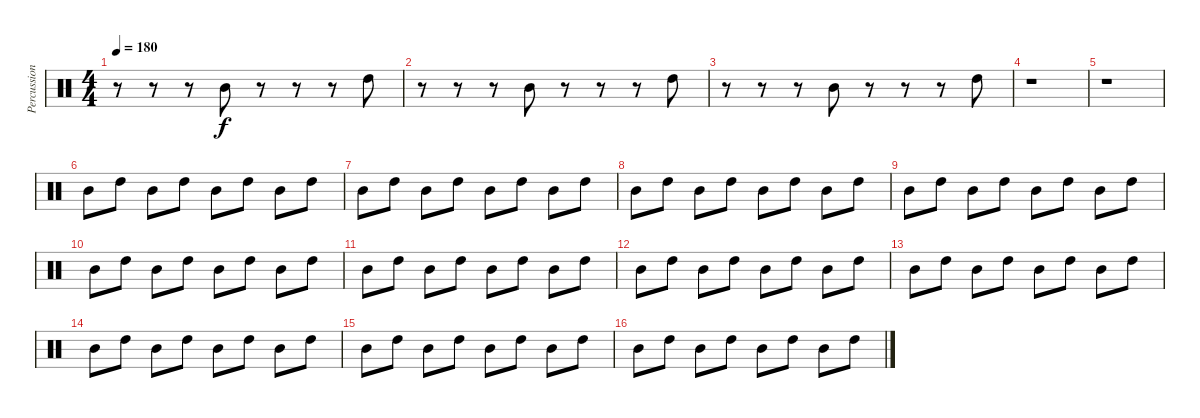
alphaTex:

\track ("Percussions" "Percussion") {instrument percussion}
\staff {score}
\articulation defaults
\ts (4 4)
\tempo 180
\clef neutral
\ks c
r.8{dy f} r.8 r.8 "Mid Tom (hit)".8 r.8 r.8 r.8 "High Tom (hit)".8 |
r.8 r.8 r.8 "Mid Tom (hit)".8 r.8 r.8 r.8 "High Tom (hit)".8 |
r.8 r.8 r.8 "Mid Tom (hit)".8 r.8 r.8 r.8 "High Tom (hit)".8 |
r.1 |
r.1 |
"Mid Tom (hit)".8 "High Tom (hit)".8 "Mid Tom (hit)".8 "High Tom (hit)".8 "Mid Tom (hit)".8 "High Tom (hit)".8 "Mid Tom (hit)".8 "High Tom (hit)".8 |
"Mid Tom (hit)".8 "High Tom (hit)".8 "Mid Tom (hit)".8 "High Tom (hit)".8 "Mid Tom (hit)".8 "High Tom (hit)".8 "Mid Tom (hit)".8 "High Tom (hit)".8 |
"Mid Tom (hit)".8 "High Tom (hit)".8 "Mid Tom (hit)".8 "High Tom (hit)".8 "Mid Tom (hit)".8 "High Tom (hit)".8 "Mid Tom (hit)".8 "High Tom (hit)".8 |
"Mid Tom (hit)".8 "High Tom (hit)".8 "Mid Tom (hit)".8 "High Tom (hit)".8 "Mid Tom (hit)".8 "High Tom (hit)".8 "Mid Tom (hit)".8 "High Tom (hit)".8 |
"Mid Tom (hit)".8 "High Tom (hit)".8 "Mid Tom (hit)".8 "High Tom (hit)".8 "Mid Tom (hit)".8 "High Tom (hit)".8 "Mid Tom (hit)".8 "High Tom (hit)".8 |
"Mid Tom (hit)".8 "High Tom (hit)".8 "Mid Tom (hit)".8 "High Tom (hit)".8 "Mid Tom (hit)".8 "High Tom (hit)".8 "Mid Tom (hit)".8 "High Tom (hit)".8 |
"Mid Tom (hit)".8 "High Tom (hit)".8 "Mid Tom (hit)".8 "High Tom (hit)".8 "Mid Tom (hit)".8 "High Tom (hit)".8 "Mid Tom (hit)".8 "High Tom (hit)".8 |
"Mid Tom (hit)".8 "High Tom (hit)".8 "Mid Tom (hit)".8 "High Tom (hit)".8 "Mid Tom (hit)".8 "High Tom (hit)".8 "Mid Tom (hit)".8 "High Tom (hit)".8 |
"Mid Tom (hit)".8 "High Tom (hit)".8 "Mid Tom (hit)".8 "High Tom (hit)".8 "Mid Tom (hit)".8 "High Tom (hit)".8 "Mid Tom (hit)".8 "High Tom (hit)".8 |
"Mid Tom (hit)".8 "High Tom (hit)".8 "Mid Tom (hit)".8 "High Tom (hit)".8 "Mid Tom (hit)".8 "High Tom (hit)".8 "Mid Tom (hit)".8 "High Tom (hit)".8 |
"Mid Tom (hit)".8 "High Tom (hit)".8 "Mid Tom (hit)".8 "High Tom (hit)".8 "Mid Tom (hit)".8 "High Tom (hit)".8 "Mid Tom (hit)".8 "High Tom (hit)".8
